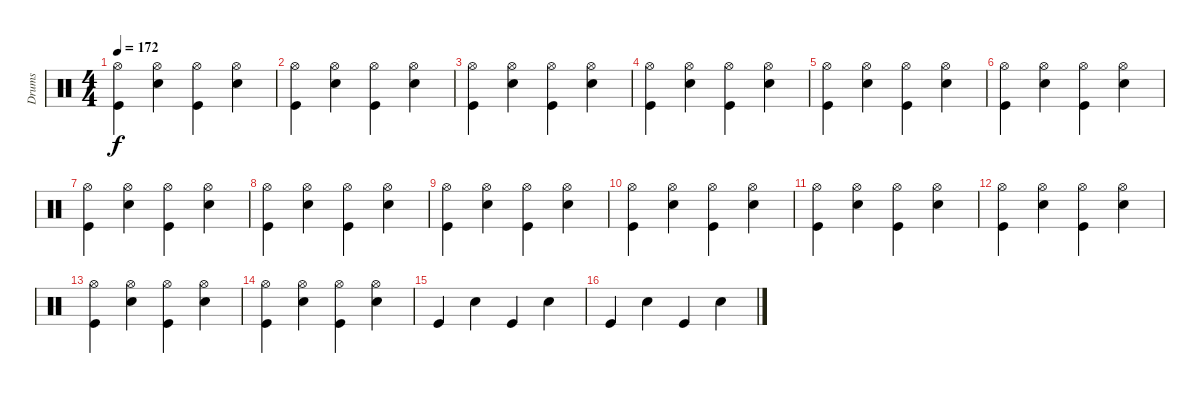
\track ("Drums" "Drums") {instrument percussion}
\staff {score}
\articulation defaults
\ts (4 4)
\tempo 172
\clef neutral
\ks c
("Kick (hit)" "Hi-Hat (open)").4{dy f} ("Snare (hit) 2" "Hi-Hat (open)").4 ("Kick (hit)" "Hi-Hat (open)").4 ("Snare (hit) 2" "Hi-Hat (open)").4 |
("Kick (hit)" "Hi-Hat (open)").4 ("Snare (hit) 2" "Hi-Hat (open)").4 ("Kick (hit)" "Hi-Hat (open)").4 ("Snare (hit) 2" "Hi-Hat (open)").4 |
("Kick (hit)" "Hi-Hat (open)").4 ("Snare (hit) 2" "Hi-Hat (open)").4 ("Kick (hit)" "Hi-Hat (open)").4 ("Snare (hit) 2" "Hi-Hat (open)").4 |
("Kick (hit)" "Hi-Hat (open)").4 ("Snare (hit) 2" "Hi-Hat (open)").4 ("Kick (hit)" "Hi-Hat (open)").4 ("Snare (hit) 2" "Hi-Hat (open)").4 |
("Kick (hit)" "Hi-Hat (open)").4 ("Snare (hit) 2" "Hi-Hat (open)").4 ("Kick (hit)" "Hi-Hat (open)").4 ("Snare (hit) 2" "Hi-Hat (open)").4 |
("Kick (hit)" "Hi-Hat (open)").4 ("Snare (hit) 2" "Hi-Hat (open)").4 ("Kick (hit)" "Hi-Hat (open)").4 ("Snare (hit) 2" "Hi-Hat (open)").4 |
("Kick (hit)" "Hi-Hat (open)").4 ("Snare (hit) 2" "Hi-Hat (open)").4 ("Kick (hit)" "Hi-Hat (open)").4 ("Snare (hit) 2" "Hi-Hat (open)").4 |
("Kick (hit)" "Hi-Hat (open)").4 ("Snare (hit) 2" "Hi-Hat (open)").4 ("Kick (hit)" "Hi-Hat (open)").4 ("Snare (hit) 2" "Hi-Hat (open)").4 |
("Kick (hit)" "Hi-Hat (open)").4 ("Snare (hit) 2" "Hi-Hat (open)").4 ("Kick (hit)" "Hi-Hat (open)").4 ("Snare (hit) 2" "Hi-Hat (open)").4 |
("Kick (hit)" "Hi-Hat (open)").4 ("Snare (hit) 2" "Hi-Hat (open)").4 ("Kick (hit)" "Hi-Hat (open)").4 ("Snare (hit) 2" "Hi-Hat (open)").4 |
("Kick (hit)" "Hi-Hat (open)").4 ("Snare (hit) 2" "Hi-Hat (open)").4 ("Kick (hit)" "Hi-Hat (open)").4 ("Snare (hit) 2" "Hi-Hat (open)").4 |
("Kick (hit)" "Hi-Hat (open)").4 ("Snare (hit) 2" "Hi-Hat (open)").4 ("Kick (hit)" "Hi-Hat (open)").4 ("Snare (hit) 2" "Hi-Hat (open)").4 |
("Kick (hit)" "Hi-Hat (open)").4 ("Snare (hit) 2" "Hi-Hat (open)").4 ("Kick (hit)" "Hi-Hat (open)").4 ("Snare (hit) 2" "Hi-Hat (open)").4 |
("Kick (hit)" "Hi-Hat (open)").4 ("Snare (hit) 2" "Hi-Hat (open)").4 ("Kick (hit)" "Hi-Hat (open)").4 ("Snare (hit) 2" "Hi-Hat (open)").4 |
"Kick (hit)".4 "Snare (hit) 2".4 "Kick (hit)".4 "Snare (hit) 2".4 |
"Kick (hit)".4 "Snare (hit) 2".4 "Kick (hit)".4 "Snare (hit) 2".4
